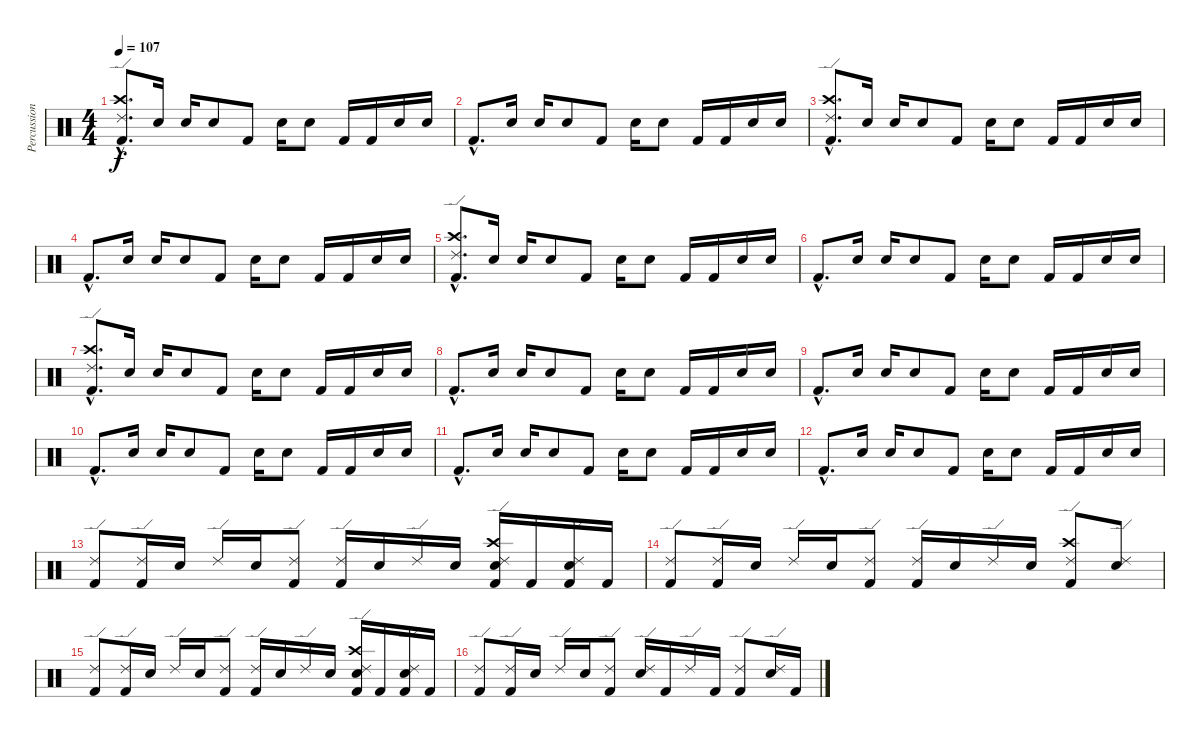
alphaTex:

\track ("Percussion" "Percussion") {instrument percussion}
\staff {score}
\articulation defaults
\ts (4 4)
\tempo 107
\clef neutral
\ks c
("Ride (edge) 2"{hac} "Crash high (hit)"{hac} "Kick (hit) 2"{hac}).8{d dy f} "Electric Snare (hit)".16 "Snare (hit) 2".16 "Electric Snare (hit)".8 "Kick (hit) 2".8 "Electric Snare (hit)".16 "Snare (hit) 2".8 "Kick (hit) 2".16 "Kick (hit) 2".16 "Electric Snare (hit)".16 "Snare (hit) 2".16 |
"Kick (hit) 2"{hac}.8{d} "Electric Snare (hit)".16 "Snare (hit) 2".16 "Electric Snare (hit)".8 "Kick (hit) 2".8 "Electric Snare (hit)".16 "Snare (hit) 2".8 "Kick (hit) 2".16 "Kick (hit) 2".16 "Electric Snare (hit)".16 "Snare (hit) 2".16 |
("Ride (edge) 2"{hac} "Crash high (hit)"{hac} "Kick (hit) 2"{hac}).8{d} "Electric Snare (hit)".16 "Snare (hit) 2".16 "Electric Snare (hit)".8 "Kick (hit) 2".8 "Electric Snare (hit)".16 "Snare (hit) 2".8 "Kick (hit) 2".16 "Kick (hit) 2".16 "Electric Snare (hit)".16 "Snare (hit) 2".16 |
"Kick (hit) 2"{hac}.8{d} "Electric Snare (hit)".16 "Snare (hit) 2".16 "Electric Snare (hit)".8 "Kick (hit) 2".8 "Electric Snare (hit)".16 "Snare (hit) 2".8 "Kick (hit) 2".16 "Kick (hit) 2".16 "Electric Snare (hit)".16 "Snare (hit) 2".16 |
("Ride (edge) 2"{hac} "Crash high (hit)"{hac} "Kick (hit) 2"{hac}).8{d} "Electric Snare (hit)".16 "Snare (hit) 2".16 "Electric Snare (hit)".8 "Kick (hit) 2".8 "Electric Snare (hit)".16 "Snare (hit) 2".8 "Kick (hit) 2".16 "Kick (hit) 2".16 "Electric Snare (hit)".16 "Snare (hit) 2".16 |
"Kick (hit) 2"{hac}.8{d} "Electric Snare (hit)".16 "Snare (hit) 2".16 "Electric Snare (hit)".8 "Kick (hit) 2".8 "Electric Snare (hit)".16 "Snare (hit) 2".8 "Kick (hit) 2".16 "Kick (hit) 2".16 "Electric Snare (hit)".16 "Snare (hit) 2".16 |
("Ride (edge) 2"{hac} "Crash high (hit)"{hac} "Kick (hit) 2"{hac}).8{d} "Electric Snare (hit)".16 "Snare (hit) 2".16 "Electric Snare (hit)".8 "Kick (hit) 2".8 "Electric Snare (hit)".16 "Snare (hit) 2".8 "Kick (hit) 2".16 "Kick (hit) 2".16 "Electric Snare (hit)".16 "Snare (hit) 2".16 |
"Kick (hit) 2"{hac}.8{d} "Electric Snare (hit)".16 "Snare (hit) 2".16 "Electric Snare (hit)".8 "Kick (hit) 2".8 "Electric Snare (hit)".16 "Snare (hit) 2".8 "Kick (hit) 2".16 "Kick (hit) 2".16 "Electric Snare (hit)".16 "Snare (hit) 2".16 |
"Kick (hit) 2"{hac}.8{d} "Electric Snare (hit)".16 "Snare (hit) 2".16 "Electric Snare (hit)".8 "Kick (hit) 2".8 "Electric Snare (hit)".16 "Snare (hit) 2".8 "Kick (hit) 2".16 "Kick (hit) 2".16 "Electric Snare (hit)".16 "Snare (hit) 2".16 |
"Kick (hit) 2"{hac}.8{d} "Electric Snare (hit)".16 "Snare (hit) 2".16 "Electric Snare (hit)".8 "Kick (hit) 2".8 "Electric Snare (hit)".16 "Snare (hit) 2".8 "Kick (hit) 2".16 "Kick (hit) 2".16 "Electric Snare (hit)".16 "Snare (hit) 2".16 |
"Kick (hit) 2"{hac}.8{d} "Electric Snare (hit)".16 "Snare (hit) 2".16 "Electric Snare (hit)".8 "Kick (hit) 2".8 "Electric Snare (hit)".16 "Snare (hit) 2".8 "Kick (hit) 2".16 "Kick (hit) 2".16 "Electric Snare (hit)".16 "Snare (hit) 2".16 |
"Kick (hit) 2"{hac}.8{d} "Electric Snare (hit)".16 "Snare (hit) 2".16 "Electric Snare (hit)".8 "Kick (hit) 2".8 "Electric Snare (hit)".16 "Snare (hit) 2".8 "Kick (hit) 2".16 "Kick (hit) 2".16 "Electric Snare (hit)".16 "Snare (hit) 2".16 |
("Ride (edge) 2" "Kick (hit) 2").8 ("Ride (edge) 2" "Kick (hit) 2").16 "Electric Snare (hit)".16 "Ride (edge) 2".16 "Electric Snare (hit)".16 ("Ride (edge) 2" "Kick (hit) 2").8 ("Ride (edge) 2" "Kick (hit) 2").16 "Electric Snare (hit)".16 "Ride (edge) 2".16 "Electric Snare (hit)".16 ("Ride (edge) 2" "Crash high (hit)" "Electric Snare (hit)" "Kick (hit) 2").16 "Kick (hit) 2".16 ("Ride (edge) 2" "Snare (hit) 2" "Kick (hit) 2").16 "Kick (hit) 2".16 |
("Ride (edge) 2" "Kick (hit) 2").8 ("Ride (edge) 2" "Kick (hit) 2").16 "Electric Snare (hit)".16 "Ride (edge) 2".16 "Electric Snare (hit)".16 ("Ride (edge) 2" "Kick (hit) 2").8 ("Ride (edge) 2" "Kick (hit) 2").16 "Electric Snare (hit)".16 "Ride (edge) 2".16 "Electric Snare (hit)".16 ("Ride (edge) 2" "Crash high (hit)" "Kick (hit) 2").8 ("Ride (edge) 2" "Electric Snare (hit)").8 |
("Ride (edge) 2" "Kick (hit) 2").8 ("Ride (edge) 2" "Kick (hit) 2").16 "Electric Snare (hit)".16 "Ride (edge) 2".16 "Electric Snare (hit)".16 ("Ride (edge) 2" "Kick (hit) 2").8 ("Ride (edge) 2" "Kick (hit) 2").16 "Electric Snare (hit)".16 "Ride (edge) 2".16 "Electric Snare (hit)".16 ("Ride (edge) 2" "Crash high (hit)" "Electric Snare (hit)" "Kick (hit) 2").16 "Kick (hit) 2".16 ("Ride (edge) 2" "Snare (hit) 2" "Kick (hit) 2").16 "Kick (hit) 2".16 |
("Ride (edge) 2" "Kick (hit) 2").8 ("Ride (edge) 2" "Kick (hit) 2").16 "Electric Snare (hit)".16 "Ride (edge) 2".16 "Electric Snare (hit)".16 ("Ride (edge) 2" "Kick (hit) 2").8 ("Ride (edge) 2" "Electric Snare (hit)").16 "Kick (hit) 2".16 "Ride (edge) 2".16 "Kick (hit) 2".16 ("Ride (edge) 2" "Kick (hit) 2").8 ("Ride (edge) 2" "Electric Snare (hit)").16 "Kick (hit) 2".16
